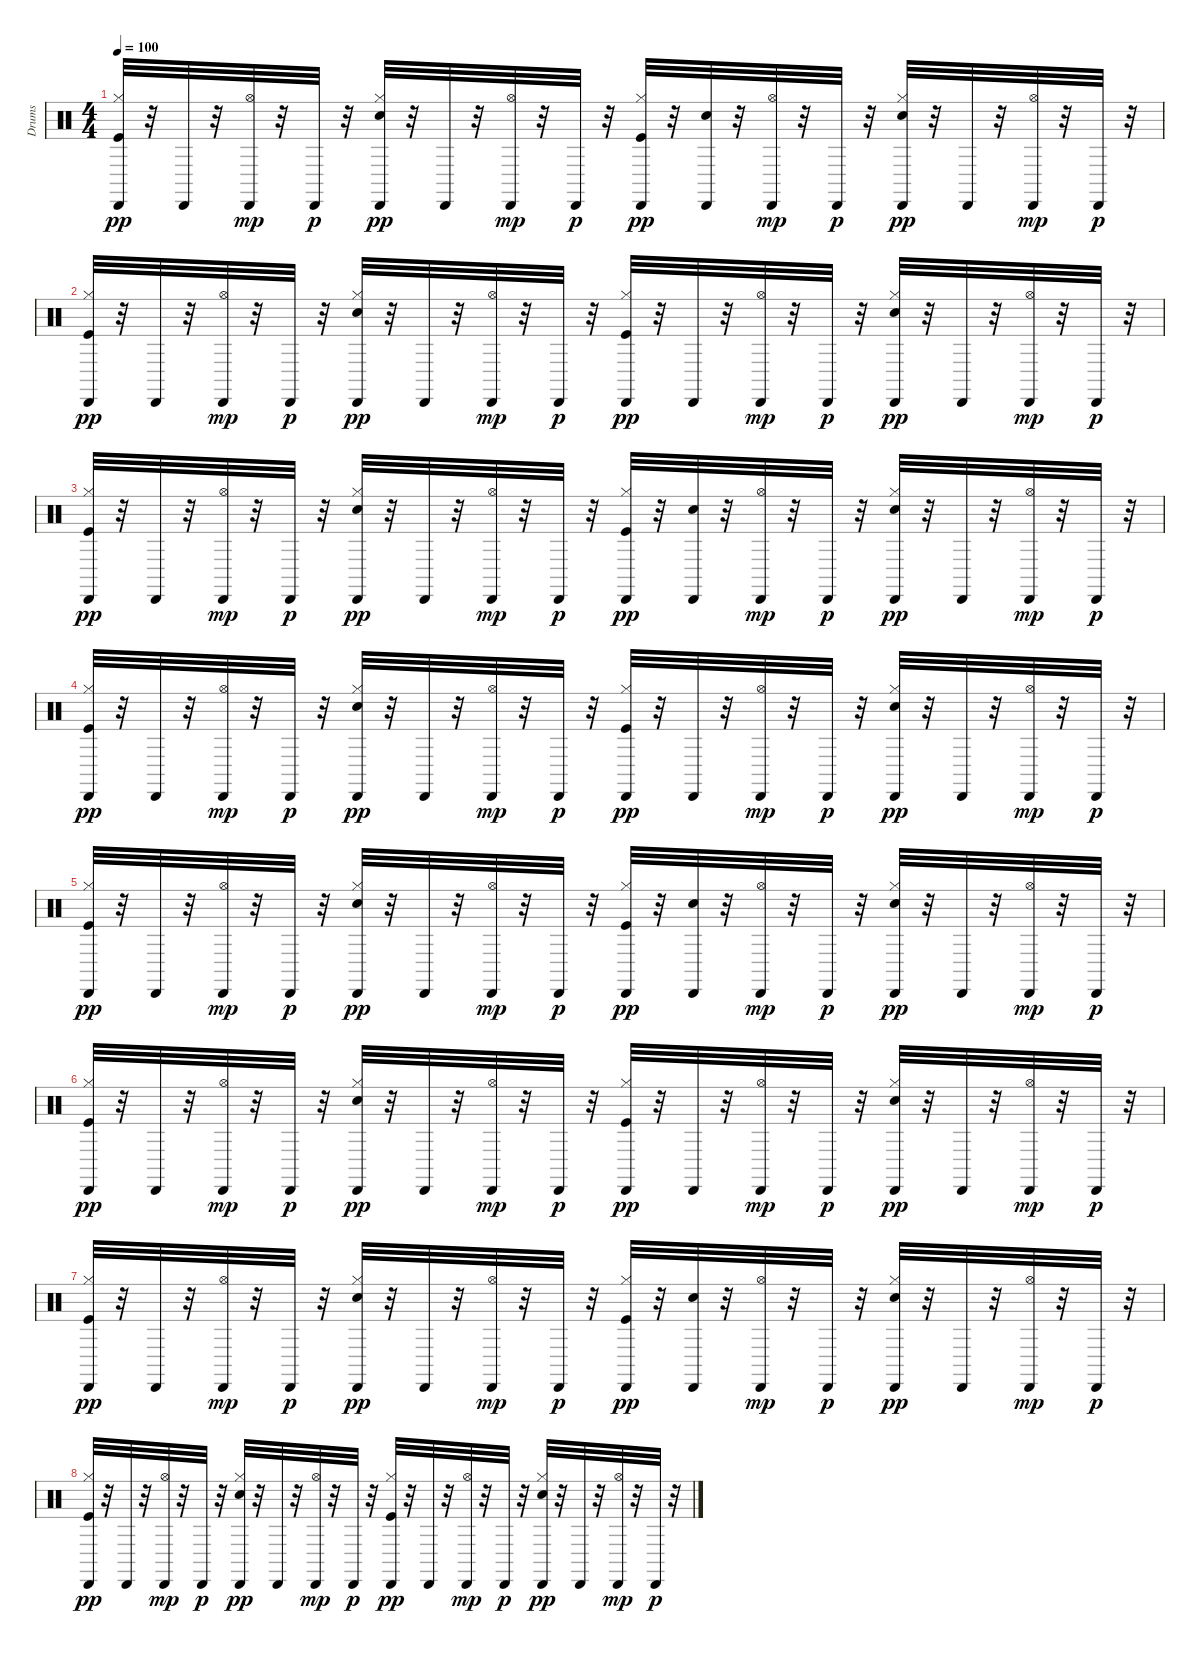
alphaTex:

\track ("Drums" "Drums") {instrument percussion}
\staff {score}
\articulation defaults
\ts (4 4)
\tempo 100
\clef neutral
\ks c
("Kick (hit)" "Hi-Hat (closed)" "Cabasa (hit)").32{dy pp} r.32 "Cabasa (hit)".32 r.32 ("Hi-Hat (open)" "Cabasa (hit)").32{dy mp} r.32 "Cabasa (hit)".32{dy p} r.32 ("Electric Snare (hit)" "Hi-Hat (closed)" "Cabasa (hit)").32{dy pp} r.32 "Cabasa (hit)".32 r.32 ("Hi-Hat (open)" "Cabasa (hit)").32{dy mp} r.32 "Cabasa (hit)".32{dy p} r.32 ("Kick (hit)" "Hi-Hat (closed)" "Cabasa (hit)").32{dy pp} r.32 ("Electric Snare (hit)" "Cabasa (hit)").32 r.32 ("Hi-Hat (open)" "Cabasa (hit)").32{dy mp} r.32 "Cabasa (hit)".32{dy p} r.32 ("Electric Snare (hit)" "Hi-Hat (closed)" "Cabasa (hit)").32{dy pp} r.32 "Cabasa (hit)".32 r.32 ("Hi-Hat (open)" "Cabasa (hit)").32{dy mp} r.32 "Cabasa (hit)".32{dy p} r.32 |
("Kick (hit)" "Hi-Hat (closed)" "Cabasa (hit)").32{dy pp} r.32 "Cabasa (hit)".32 r.32 ("Hi-Hat (open)" "Cabasa (hit)").32{dy mp} r.32 "Cabasa (hit)".32{dy p} r.32 ("Electric Snare (hit)" "Hi-Hat (closed)" "Cabasa (hit)").32{dy pp} r.32 "Cabasa (hit)".32 r.32 ("Hi-Hat (open)" "Cabasa (hit)").32{dy mp} r.32 "Cabasa (hit)".32{dy p} r.32 ("Kick (hit)" "Hi-Hat (closed)" "Cabasa (hit)").32{dy pp} r.32 "Cabasa (hit)".32 r.32 ("Hi-Hat (open)" "Cabasa (hit)").32{dy mp} r.32 "Cabasa (hit)".32{dy p} r.32 ("Electric Snare (hit)" "Hi-Hat (closed)" "Cabasa (hit)").32{dy pp} r.32 "Cabasa (hit)".32 r.32 ("Hi-Hat (open)" "Cabasa (hit)").32{dy mp} r.32 "Cabasa (hit)".32{dy p} r.32 |
("Kick (hit)" "Hi-Hat (closed)" "Cabasa (hit)").32{dy pp} r.32 "Cabasa (hit)".32 r.32 ("Hi-Hat (open)" "Cabasa (hit)").32{dy mp} r.32 "Cabasa (hit)".32{dy p} r.32 ("Electric Snare (hit)" "Hi-Hat (closed)" "Cabasa (hit)").32{dy pp} r.32 "Cabasa (hit)".32 r.32 ("Hi-Hat (open)" "Cabasa (hit)").32{dy mp} r.32 "Cabasa (hit)".32{dy p} r.32 ("Kick (hit)" "Hi-Hat (closed)" "Cabasa (hit)").32{dy pp} r.32 ("Electric Snare (hit)" "Cabasa (hit)").32 r.32 ("Hi-Hat (open)" "Cabasa (hit)").32{dy mp} r.32 "Cabasa (hit)".32{dy p} r.32 ("Electric Snare (hit)" "Hi-Hat (closed)" "Cabasa (hit)").32{dy pp} r.32 "Cabasa (hit)".32 r.32 ("Hi-Hat (open)" "Cabasa (hit)").32{dy mp} r.32 "Cabasa (hit)".32{dy p} r.32 |
("Kick (hit)" "Hi-Hat (closed)" "Cabasa (hit)").32{dy pp} r.32 "Cabasa (hit)".32 r.32 ("Hi-Hat (open)" "Cabasa (hit)").32{dy mp} r.32 "Cabasa (hit)".32{dy p} r.32 ("Electric Snare (hit)" "Hi-Hat (closed)" "Cabasa (hit)").32{dy pp} r.32 "Cabasa (hit)".32 r.32 ("Hi-Hat (open)" "Cabasa (hit)").32{dy mp} r.32 "Cabasa (hit)".32{dy p} r.32 ("Kick (hit)" "Hi-Hat (closed)" "Cabasa (hit)").32{dy pp} r.32 "Cabasa (hit)".32 r.32 ("Hi-Hat (open)" "Cabasa (hit)").32{dy mp} r.32 "Cabasa (hit)".32{dy p} r.32 ("Electric Snare (hit)" "Hi-Hat (closed)" "Cabasa (hit)").32{dy pp} r.32 "Cabasa (hit)".32 r.32 ("Hi-Hat (open)" "Cabasa (hit)").32{dy mp} r.32 "Cabasa (hit)".32{dy p} r.32 |
("Kick (hit)" "Hi-Hat (closed)" "Cabasa (hit)").32{dy pp} r.32 "Cabasa (hit)".32 r.32 ("Hi-Hat (open)" "Cabasa (hit)").32{dy mp} r.32 "Cabasa (hit)".32{dy p} r.32 ("Electric Snare (hit)" "Hi-Hat (closed)" "Cabasa (hit)").32{dy pp} r.32 "Cabasa (hit)".32 r.32 ("Hi-Hat (open)" "Cabasa (hit)").32{dy mp} r.32 "Cabasa (hit)".32{dy p} r.32 ("Kick (hit)" "Hi-Hat (closed)" "Cabasa (hit)").32{dy pp} r.32 ("Electric Snare (hit)" "Cabasa (hit)").32 r.32 ("Hi-Hat (open)" "Cabasa (hit)").32{dy mp} r.32 "Cabasa (hit)".32{dy p} r.32 ("Electric Snare (hit)" "Hi-Hat (closed)" "Cabasa (hit)").32{dy pp} r.32 "Cabasa (hit)".32 r.32 ("Hi-Hat (open)" "Cabasa (hit)").32{dy mp} r.32 "Cabasa (hit)".32{dy p} r.32 |
("Kick (hit)" "Hi-Hat (closed)" "Cabasa (hit)").32{dy pp} r.32 "Cabasa (hit)".32 r.32 ("Hi-Hat (open)" "Cabasa (hit)").32{dy mp} r.32 "Cabasa (hit)".32{dy p} r.32 ("Electric Snare (hit)" "Hi-Hat (closed)" "Cabasa (hit)").32{dy pp} r.32 "Cabasa (hit)".32 r.32 ("Hi-Hat (open)" "Cabasa (hit)").32{dy mp} r.32 "Cabasa (hit)".32{dy p} r.32 ("Kick (hit)" "Hi-Hat (closed)" "Cabasa (hit)").32{dy pp} r.32 "Cabasa (hit)".32 r.32 ("Hi-Hat (open)" "Cabasa (hit)").32{dy mp} r.32 "Cabasa (hit)".32{dy p} r.32 ("Electric Snare (hit)" "Hi-Hat (closed)" "Cabasa (hit)").32{dy pp} r.32 "Cabasa (hit)".32 r.32 ("Hi-Hat (open)" "Cabasa (hit)").32{dy mp} r.32 "Cabasa (hit)".32{dy p} r.32 |
("Kick (hit)" "Hi-Hat (closed)" "Cabasa (hit)").32{dy pp} r.32 "Cabasa (hit)".32 r.32 ("Hi-Hat (open)" "Cabasa (hit)").32{dy mp} r.32 "Cabasa (hit)".32{dy p} r.32 ("Electric Snare (hit)" "Hi-Hat (closed)" "Cabasa (hit)").32{dy pp} r.32 "Cabasa (hit)".32 r.32 ("Hi-Hat (open)" "Cabasa (hit)").32{dy mp} r.32 "Cabasa (hit)".32{dy p} r.32 ("Kick (hit)" "Hi-Hat (closed)" "Cabasa (hit)").32{dy pp} r.32 ("Electric Snare (hit)" "Cabasa (hit)").32 r.32 ("Hi-Hat (open)" "Cabasa (hit)").32{dy mp} r.32 "Cabasa (hit)".32{dy p} r.32 ("Electric Snare (hit)" "Hi-Hat (closed)" "Cabasa (hit)").32{dy pp} r.32 "Cabasa (hit)".32 r.32 ("Hi-Hat (open)" "Cabasa (hit)").32{dy mp} r.32 "Cabasa (hit)".32{dy p} r.32 |
("Kick (hit)" "Hi-Hat (closed)" "Cabasa (hit)").32{dy pp} r.32 "Cabasa (hit)".32 r.32 ("Hi-Hat (open)" "Cabasa (hit)").32{dy mp} r.32 "Cabasa (hit)".32{dy p} r.32 ("Electric Snare (hit)" "Hi-Hat (closed)" "Cabasa (hit)").32{dy pp} r.32 "Cabasa (hit)".32 r.32 ("Hi-Hat (open)" "Cabasa (hit)").32{dy mp} r.32 "Cabasa (hit)".32{dy p} r.32 ("Kick (hit)" "Hi-Hat (closed)" "Cabasa (hit)").32{dy pp} r.32 "Cabasa (hit)".32 r.32 ("Hi-Hat (open)" "Cabasa (hit)").32{dy mp} r.32 "Cabasa (hit)".32{dy p} r.32 ("Electric Snare (hit)" "Hi-Hat (closed)" "Cabasa (hit)").32{dy pp} r.32 "Cabasa (hit)".32 r.32 ("Hi-Hat (open)" "Cabasa (hit)").32{dy mp} r.32 "Cabasa (hit)".32{dy p} r.32
